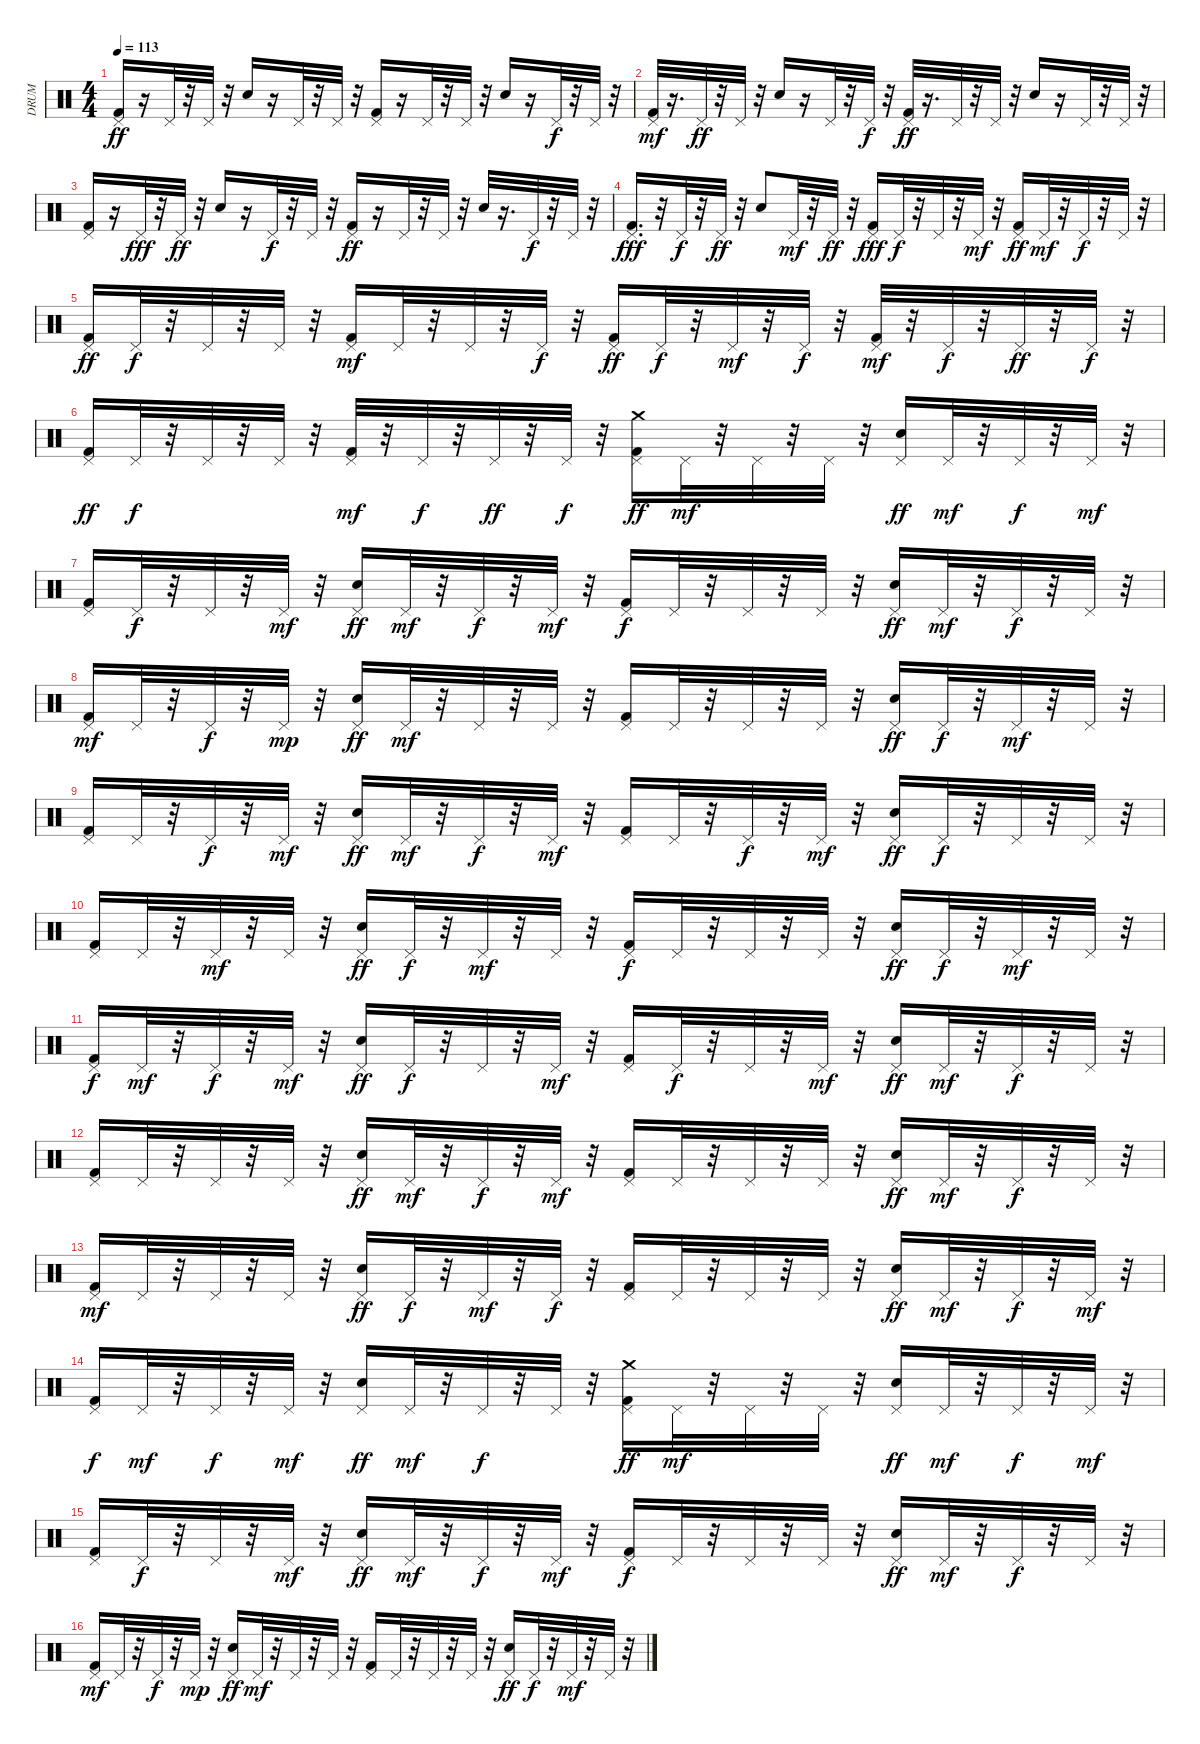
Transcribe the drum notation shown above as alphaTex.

\track ("DRUM" "DRUM") {instrument percussion}
\staff {score}
\articulation defaults
\ts (4 4)
\tempo 113
\clef neutral
\ks c
("Pedal Hi-Hat (hit)" "Kick (hit) 2").16{dy ff} r.16 "Pedal Hi-Hat (hit)".32 r.32 "Pedal Hi-Hat (hit)".32 r.32 "Snare (hit) 2".16 r.16 "Pedal Hi-Hat (hit)".32 r.32 "Pedal Hi-Hat (hit)".32 r.32 ("Pedal Hi-Hat (hit)" "Kick (hit) 2").16 r.16 "Pedal Hi-Hat (hit)".32 r.32 "Pedal Hi-Hat (hit)".32 r.32 "Snare (hit) 2".16 r.16 "Pedal Hi-Hat (hit)".32{dy f} r.32 "Pedal Hi-Hat (hit)".32 r.32 |
("Pedal Hi-Hat (hit)" "Kick (hit) 2").32{dy mf} r.16{d} "Pedal Hi-Hat (hit)".32{dy ff} r.32 "Pedal Hi-Hat (hit)".32 r.32 "Snare (hit) 2".16 r.16 "Pedal Hi-Hat (hit)".32 r.32 "Pedal Hi-Hat (hit)".32{dy f} r.32 ("Pedal Hi-Hat (hit)" "Kick (hit) 2").32{dy ff} r.16{d} "Pedal Hi-Hat (hit)".32 r.32 "Pedal Hi-Hat (hit)".32 r.32 "Snare (hit) 2".16 r.16 "Pedal Hi-Hat (hit)".32 r.32 "Pedal Hi-Hat (hit)".32 r.32 |
("Pedal Hi-Hat (hit)" "Kick (hit) 2").16 r.16 "Pedal Hi-Hat (hit)".32{dy fff} r.32 "Pedal Hi-Hat (hit)".32{dy ff} r.32 "Snare (hit) 2".16 r.16 "Pedal Hi-Hat (hit)".32{dy f} r.32 "Pedal Hi-Hat (hit)".32 r.32 ("Pedal Hi-Hat (hit)" "Kick (hit) 2").16{dy ff} r.16 "Pedal Hi-Hat (hit)".32 r.32 "Pedal Hi-Hat (hit)".32 r.32 "Snare (hit) 2".32 r.16{d} "Pedal Hi-Hat (hit)".32{dy f} r.32 "Pedal Hi-Hat (hit)".32 r.32 |
("Pedal Hi-Hat (hit)" "Kick (hit) 2").16{d dy fff} r.32 "Pedal Hi-Hat (hit)".32{dy f} r.32 "Pedal Hi-Hat (hit)".32{dy ff} r.32 "Snare (hit) 2".8 "Pedal Hi-Hat (hit)".32{dy mf} r.32 "Pedal Hi-Hat (hit)".32{dy ff} r.32 ("Pedal Hi-Hat (hit)" "Kick (hit) 2").16{dy fff} "Pedal Hi-Hat (hit)".32{dy f} r.32 "Pedal Hi-Hat (hit)".32 r.32 "Pedal Hi-Hat (hit)".32{dy mf} r.32 ("Pedal Hi-Hat (hit)" "Kick (hit) 2").16{dy ff} "Pedal Hi-Hat (hit)".32{dy mf} r.32 "Pedal Hi-Hat (hit)".32{dy f} r.32 "Pedal Hi-Hat (hit)".32 r.32 |
("Pedal Hi-Hat (hit)" "Kick (hit) 2").16{dy ff} "Pedal Hi-Hat (hit)".32{dy f} r.32 "Pedal Hi-Hat (hit)".32 r.32 "Pedal Hi-Hat (hit)".32 r.32 ("Pedal Hi-Hat (hit)" "Kick (hit) 2").16{dy mf} "Pedal Hi-Hat (hit)".32 r.32 "Pedal Hi-Hat (hit)".32 r.32 "Pedal Hi-Hat (hit)".32{dy f} r.32 ("Pedal Hi-Hat (hit)" "Kick (hit) 2").16{dy ff} "Pedal Hi-Hat (hit)".32{dy f} r.32 "Pedal Hi-Hat (hit)".32{dy mf} r.32 "Pedal Hi-Hat (hit)".32{dy f} r.32 ("Pedal Hi-Hat (hit)" "Kick (hit) 2").32{dy mf} r.32 "Pedal Hi-Hat (hit)".32{dy f} r.32 "Pedal Hi-Hat (hit)".32{dy ff} r.32 "Pedal Hi-Hat (hit)".32{dy f} r.32 |
("Pedal Hi-Hat (hit)" "Kick (hit) 2").16{dy ff} "Pedal Hi-Hat (hit)".32{dy f} r.32 "Pedal Hi-Hat (hit)".32 r.32 "Pedal Hi-Hat (hit)".32 r.32 ("Pedal Hi-Hat (hit)" "Kick (hit) 2").32{dy mf} r.32 "Pedal Hi-Hat (hit)".32{dy f} r.32 "Pedal Hi-Hat (hit)".32{dy ff} r.32 "Pedal Hi-Hat (hit)".32{dy f} r.32 ("Crash medium (hit)" "Pedal Hi-Hat (hit)" "Kick (hit) 2").16{dy ff} "Pedal Hi-Hat (hit)".32{dy mf} r.32 "Pedal Hi-Hat (hit)".32 r.32 "Pedal Hi-Hat (hit)".32 r.32 ("Pedal Hi-Hat (hit)" "Snare (hit) 2").16{dy ff} "Pedal Hi-Hat (hit)".32{dy mf} r.32 "Pedal Hi-Hat (hit)".32{dy f} r.32 "Pedal Hi-Hat (hit)".32{dy mf} r.32 |
("Pedal Hi-Hat (hit)" "Kick (hit) 2").16 "Pedal Hi-Hat (hit)".32{dy f} r.32 "Pedal Hi-Hat (hit)".32 r.32 "Pedal Hi-Hat (hit)".32{dy mf} r.32 ("Pedal Hi-Hat (hit)" "Snare (hit) 2").16{dy ff} "Pedal Hi-Hat (hit)".32{dy mf} r.32 "Pedal Hi-Hat (hit)".32{dy f} r.32 "Pedal Hi-Hat (hit)".32{dy mf} r.32 ("Pedal Hi-Hat (hit)" "Kick (hit) 2").16{dy f} "Pedal Hi-Hat (hit)".32 r.32 "Pedal Hi-Hat (hit)".32 r.32 "Pedal Hi-Hat (hit)".32 r.32 ("Pedal Hi-Hat (hit)" "Snare (hit) 2").16{dy ff} "Pedal Hi-Hat (hit)".32{dy mf} r.32 "Pedal Hi-Hat (hit)".32{dy f} r.32 "Pedal Hi-Hat (hit)".32 r.32 |
("Pedal Hi-Hat (hit)" "Kick (hit) 2").16{dy mf} "Pedal Hi-Hat (hit)".32 r.32 "Pedal Hi-Hat (hit)".32{dy f} r.32 "Pedal Hi-Hat (hit)".32{dy mp} r.32 ("Pedal Hi-Hat (hit)" "Snare (hit) 2").16{dy ff} "Pedal Hi-Hat (hit)".32{dy mf} r.32 "Pedal Hi-Hat (hit)".32 r.32 "Pedal Hi-Hat (hit)".32 r.32 ("Pedal Hi-Hat (hit)" "Kick (hit) 2").16 "Pedal Hi-Hat (hit)".32 r.32 "Pedal Hi-Hat (hit)".32 r.32 "Pedal Hi-Hat (hit)".32 r.32 ("Pedal Hi-Hat (hit)" "Snare (hit) 2").16{dy ff} "Pedal Hi-Hat (hit)".32{dy f} r.32 "Pedal Hi-Hat (hit)".32{dy mf} r.32 "Pedal Hi-Hat (hit)".32 r.32 |
("Pedal Hi-Hat (hit)" "Kick (hit) 2").16 "Pedal Hi-Hat (hit)".32 r.32 "Pedal Hi-Hat (hit)".32{dy f} r.32 "Pedal Hi-Hat (hit)".32{dy mf} r.32 ("Pedal Hi-Hat (hit)" "Snare (hit) 2").16{dy ff} "Pedal Hi-Hat (hit)".32{dy mf} r.32 "Pedal Hi-Hat (hit)".32{dy f} r.32 "Pedal Hi-Hat (hit)".32{dy mf} r.32 ("Pedal Hi-Hat (hit)" "Kick (hit) 2").16 "Pedal Hi-Hat (hit)".32 r.32 "Pedal Hi-Hat (hit)".32{dy f} r.32 "Pedal Hi-Hat (hit)".32{dy mf} r.32 ("Pedal Hi-Hat (hit)" "Snare (hit) 2").16{dy ff} "Pedal Hi-Hat (hit)".32{dy f} r.32 "Pedal Hi-Hat (hit)".32 r.32 "Pedal Hi-Hat (hit)".32 r.32 |
("Pedal Hi-Hat (hit)" "Kick (hit) 2").16 "Pedal Hi-Hat (hit)".32 r.32 "Pedal Hi-Hat (hit)".32{dy mf} r.32 "Pedal Hi-Hat (hit)".32 r.32 ("Pedal Hi-Hat (hit)" "Snare (hit) 2").16{dy ff} "Pedal Hi-Hat (hit)".32{dy f} r.32 "Pedal Hi-Hat (hit)".32{dy mf} r.32 "Pedal Hi-Hat (hit)".32 r.32 ("Pedal Hi-Hat (hit)" "Kick (hit) 2").16{dy f} "Pedal Hi-Hat (hit)".32 r.32 "Pedal Hi-Hat (hit)".32 r.32 "Pedal Hi-Hat (hit)".32 r.32 ("Pedal Hi-Hat (hit)" "Snare (hit) 2").16{dy ff} "Pedal Hi-Hat (hit)".32{dy f} r.32 "Pedal Hi-Hat (hit)".32{dy mf} r.32 "Pedal Hi-Hat (hit)".32 r.32 |
("Pedal Hi-Hat (hit)" "Kick (hit) 2").16{dy f} "Pedal Hi-Hat (hit)".32{dy mf} r.32 "Pedal Hi-Hat (hit)".32{dy f} r.32 "Pedal Hi-Hat (hit)".32{dy mf} r.32 ("Pedal Hi-Hat (hit)" "Snare (hit) 2").16{dy ff} "Pedal Hi-Hat (hit)".32{dy f} r.32 "Pedal Hi-Hat (hit)".32 r.32 "Pedal Hi-Hat (hit)".32{dy mf} r.32 ("Pedal Hi-Hat (hit)" "Kick (hit) 2").16 "Pedal Hi-Hat (hit)".32{dy f} r.32 "Pedal Hi-Hat (hit)".32 r.32 "Pedal Hi-Hat (hit)".32{dy mf} r.32 ("Pedal Hi-Hat (hit)" "Snare (hit) 2").16{dy ff} "Pedal Hi-Hat (hit)".32{dy mf} r.32 "Pedal Hi-Hat (hit)".32{dy f} r.32 "Pedal Hi-Hat (hit)".32 r.32 |
("Pedal Hi-Hat (hit)" "Kick (hit) 2").16 "Pedal Hi-Hat (hit)".32 r.32 "Pedal Hi-Hat (hit)".32 r.32 "Pedal Hi-Hat (hit)".32 r.32 ("Pedal Hi-Hat (hit)" "Snare (hit) 2").16{dy ff} "Pedal Hi-Hat (hit)".32{dy mf} r.32 "Pedal Hi-Hat (hit)".32{dy f} r.32 "Pedal Hi-Hat (hit)".32{dy mf} r.32 ("Pedal Hi-Hat (hit)" "Kick (hit) 2").16 "Pedal Hi-Hat (hit)".32 r.32 "Pedal Hi-Hat (hit)".32 r.32 "Pedal Hi-Hat (hit)".32 r.32 ("Pedal Hi-Hat (hit)" "Snare (hit) 2").16{dy ff} "Pedal Hi-Hat (hit)".32{dy mf} r.32 "Pedal Hi-Hat (hit)".32{dy f} r.32 "Pedal Hi-Hat (hit)".32 r.32 |
("Pedal Hi-Hat (hit)" "Kick (hit) 2").16{dy mf} "Pedal Hi-Hat (hit)".32 r.32 "Pedal Hi-Hat (hit)".32 r.32 "Pedal Hi-Hat (hit)".32 r.32 ("Pedal Hi-Hat (hit)" "Snare (hit) 2").16{dy ff} "Pedal Hi-Hat (hit)".32{dy f} r.32 "Pedal Hi-Hat (hit)".32{dy mf} r.32 "Pedal Hi-Hat (hit)".32{dy f} r.32 ("Pedal Hi-Hat (hit)" "Kick (hit) 2").16 "Pedal Hi-Hat (hit)".32 r.32 "Pedal Hi-Hat (hit)".32 r.32 "Pedal Hi-Hat (hit)".32 r.32 ("Pedal Hi-Hat (hit)" "Snare (hit) 2").16{dy ff} "Pedal Hi-Hat (hit)".32{dy mf} r.32 "Pedal Hi-Hat (hit)".32{dy f} r.32 "Pedal Hi-Hat (hit)".32{dy mf} r.32 |
("Pedal Hi-Hat (hit)" "Kick (hit) 2").16{dy f} "Pedal Hi-Hat (hit)".32{dy mf} r.32 "Pedal Hi-Hat (hit)".32{dy f} r.32 "Pedal Hi-Hat (hit)".32{dy mf} r.32 ("Pedal Hi-Hat (hit)" "Snare (hit) 2").16{dy ff} "Pedal Hi-Hat (hit)".32{dy mf} r.32 "Pedal Hi-Hat (hit)".32{dy f} r.32 "Pedal Hi-Hat (hit)".32 r.32 ("Crash medium (hit)" "Pedal Hi-Hat (hit)" "Kick (hit) 2").16{dy ff} "Pedal Hi-Hat (hit)".32{dy mf} r.32 "Pedal Hi-Hat (hit)".32 r.32 "Pedal Hi-Hat (hit)".32 r.32 ("Pedal Hi-Hat (hit)" "Snare (hit) 2").16{dy ff} "Pedal Hi-Hat (hit)".32{dy mf} r.32 "Pedal Hi-Hat (hit)".32{dy f} r.32 "Pedal Hi-Hat (hit)".32{dy mf} r.32 |
("Pedal Hi-Hat (hit)" "Kick (hit) 2").16 "Pedal Hi-Hat (hit)".32{dy f} r.32 "Pedal Hi-Hat (hit)".32 r.32 "Pedal Hi-Hat (hit)".32{dy mf} r.32 ("Pedal Hi-Hat (hit)" "Snare (hit) 2").16{dy ff} "Pedal Hi-Hat (hit)".32{dy mf} r.32 "Pedal Hi-Hat (hit)".32{dy f} r.32 "Pedal Hi-Hat (hit)".32{dy mf} r.32 ("Pedal Hi-Hat (hit)" "Kick (hit) 2").16{dy f} "Pedal Hi-Hat (hit)".32 r.32 "Pedal Hi-Hat (hit)".32 r.32 "Pedal Hi-Hat (hit)".32 r.32 ("Pedal Hi-Hat (hit)" "Snare (hit) 2").16{dy ff} "Pedal Hi-Hat (hit)".32{dy mf} r.32 "Pedal Hi-Hat (hit)".32{dy f} r.32 "Pedal Hi-Hat (hit)".32 r.32 |
("Pedal Hi-Hat (hit)" "Kick (hit) 2").16{dy mf} "Pedal Hi-Hat (hit)".32 r.32 "Pedal Hi-Hat (hit)".32{dy f} r.32 "Pedal Hi-Hat (hit)".32{dy mp} r.32 ("Pedal Hi-Hat (hit)" "Snare (hit) 2").16{dy ff} "Pedal Hi-Hat (hit)".32{dy mf} r.32 "Pedal Hi-Hat (hit)".32 r.32 "Pedal Hi-Hat (hit)".32 r.32 ("Pedal Hi-Hat (hit)" "Kick (hit) 2").16 "Pedal Hi-Hat (hit)".32 r.32 "Pedal Hi-Hat (hit)".32 r.32 "Pedal Hi-Hat (hit)".32 r.32 ("Pedal Hi-Hat (hit)" "Snare (hit) 2").16{dy ff} "Pedal Hi-Hat (hit)".32{dy f} r.32 "Pedal Hi-Hat (hit)".32{dy mf} r.32 "Pedal Hi-Hat (hit)".32 r.32
